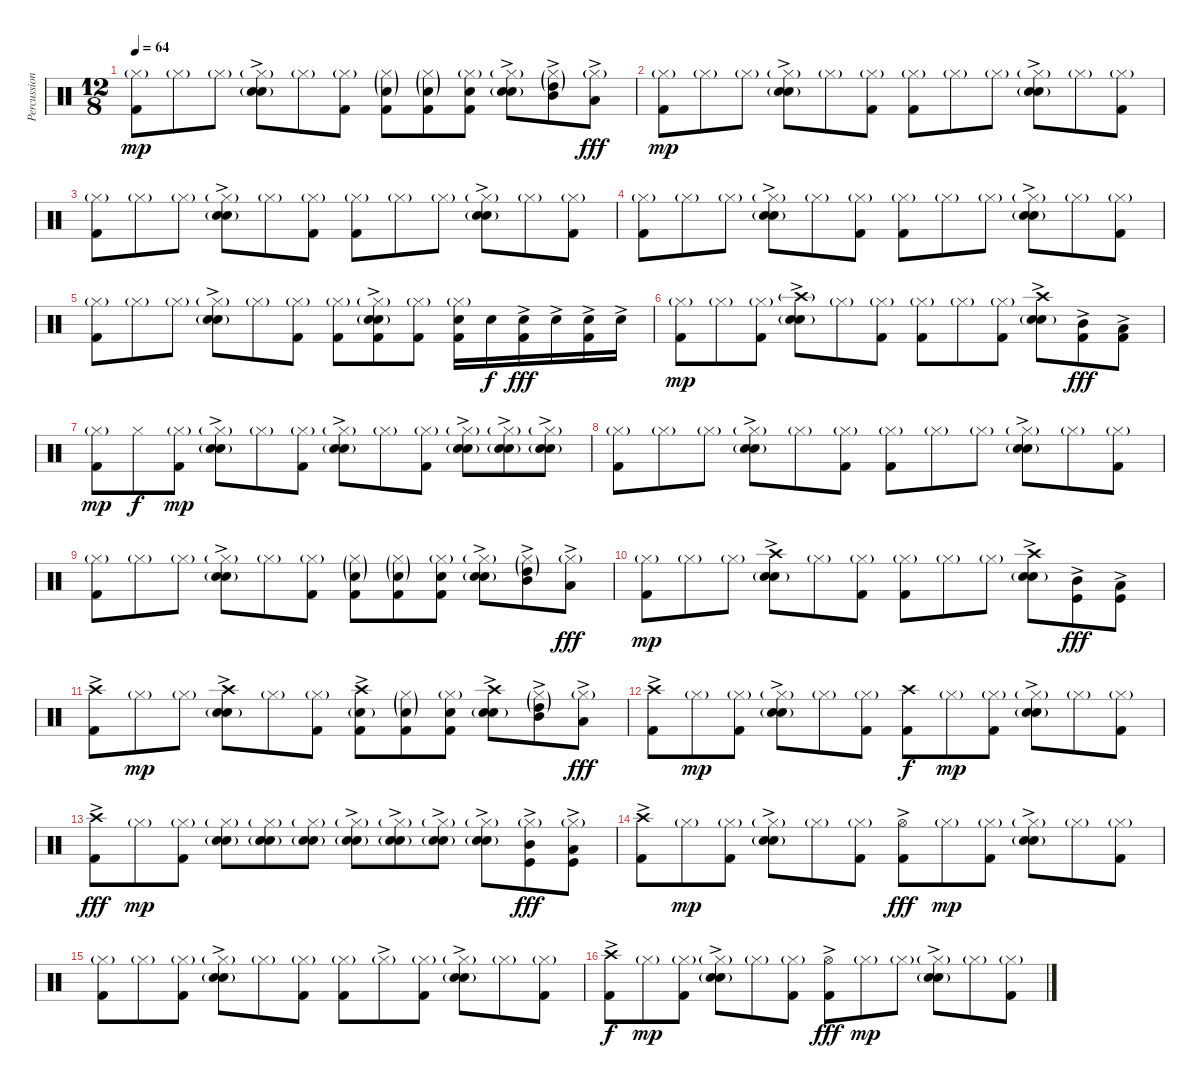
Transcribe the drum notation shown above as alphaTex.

\track ("Percussion" "Percussion") {instrument percussion}
\staff {score}
\articulation defaults
\ts (12 8)
\tempo 64
\clef neutral
\ks c
("Hi-Hat (closed)"{g} "Kick (hit) 2").8{dy mp} "Hi-Hat (closed)"{g}.8 "Hi-Hat (closed)"{g}.8 ("Hi-Hat (closed)"{g ac} "Electric Snare (hit)"{ac} "Snare (hit) 2"{g}).8 "Hi-Hat (closed)"{g}.8 ("Hi-Hat (closed)"{g} "Kick (hit) 2").8 ("Hi-Hat (closed)"{g} "Electric Snare (hit)"{g} "Kick (hit) 2").8 ("Hi-Hat (closed)"{g} "Electric Snare (hit)"{g} "Kick (hit) 2").8 ("Hi-Hat (closed)"{g} "Electric Snare (hit)" "Kick (hit) 2").8 ("Hi-Hat (closed)"{g} "Electric Snare (hit)"{ac} "Snare (hit) 2"{g}).8 ("Hi-Hat (closed)"{g} "Mid Tom (hit)"{ac} "High Tom (hit)"{g}).8 ("Hi-Hat (closed)"{g} "Low Tom (hit)"{ac}).8{dy fff} |
("Hi-Hat (closed)"{g} "Kick (hit) 2").8{dy mp} "Hi-Hat (closed)"{g}.8 "Hi-Hat (closed)"{g}.8 ("Hi-Hat (closed)"{g} "Electric Snare (hit)"{ac} "Snare (hit) 2"{g}).8 "Hi-Hat (closed)"{g}.8 ("Hi-Hat (closed)"{g} "Kick (hit) 2").8 ("Hi-Hat (closed)"{g} "Kick (hit) 2").8 "Hi-Hat (closed)"{g}.8 "Hi-Hat (closed)"{g}.8 ("Hi-Hat (closed)"{g} "Electric Snare (hit)"{ac} "Snare (hit) 2"{g}).8 "Hi-Hat (closed)"{g}.8 ("Hi-Hat (closed)"{g} "Kick (hit) 2").8 |
("Hi-Hat (closed)"{g} "Kick (hit) 2").8 "Hi-Hat (closed)"{g}.8 "Hi-Hat (closed)"{g}.8 ("Hi-Hat (closed)"{g} "Electric Snare (hit)"{ac} "Snare (hit) 2"{g}).8 "Hi-Hat (closed)"{g}.8 ("Hi-Hat (closed)"{g} "Kick (hit) 2").8 ("Hi-Hat (closed)"{g} "Kick (hit) 2").8 "Hi-Hat (closed)"{g}.8 "Hi-Hat (closed)"{g}.8 ("Hi-Hat (closed)"{g} "Electric Snare (hit)"{ac} "Snare (hit) 2"{g}).8 "Hi-Hat (closed)"{g}.8 ("Hi-Hat (closed)"{g} "Kick (hit) 2").8 |
("Hi-Hat (closed)"{g} "Kick (hit) 2").8 "Hi-Hat (closed)"{g}.8 "Hi-Hat (closed)"{g}.8 ("Hi-Hat (closed)"{g} "Electric Snare (hit)"{ac} "Snare (hit) 2"{g}).8 "Hi-Hat (closed)"{g}.8 ("Hi-Hat (closed)"{g} "Kick (hit) 2").8 ("Hi-Hat (closed)"{g} "Kick (hit) 2").8 "Hi-Hat (closed)"{g}.8 "Hi-Hat (closed)"{g}.8 ("Hi-Hat (closed)"{g} "Electric Snare (hit)"{ac} "Snare (hit) 2"{g}).8 "Hi-Hat (closed)"{g}.8 ("Hi-Hat (closed)"{g} "Kick (hit) 2").8 |
("Hi-Hat (closed)"{g} "Kick (hit) 2").8 "Hi-Hat (closed)"{g}.8 "Hi-Hat (closed)"{g}.8 ("Hi-Hat (closed)"{g ac} "Electric Snare (hit)"{ac} "Snare (hit) 2"{g}).8 "Hi-Hat (closed)"{g}.8 ("Hi-Hat (closed)"{g} "Kick (hit) 2").8 ("Hi-Hat (closed)"{g} "Kick (hit) 2").8 ("Hi-Hat (closed)"{g} "Electric Snare (hit)"{ac} "Snare (hit) 2"{g} "Kick (hit) 2").8 ("Hi-Hat (closed)"{g} "Kick (hit) 2").8 ("Hi-Hat (closed)"{g} "Electric Snare (hit)" "Kick (hit) 2").16 "Electric Snare (hit)".16{dy f} ("Electric Snare (hit)"{ac} "Kick (hit) 2").16{dy fff} "Electric Snare (hit)"{ac}.16 ("Electric Snare (hit)"{ac} "Kick (hit) 2").16 "Electric Snare (hit)"{ac}.16 |
("Hi-Hat (closed)"{g} "Kick (hit) 2").8{dy mp} "Hi-Hat (closed)"{g}.8 ("Hi-Hat (closed)"{g} "Kick (hit) 2").8 ("Crash high (hit)"{g ac} "Electric Snare (hit)"{ac} "Snare (hit) 2"{g}).8 "Hi-Hat (closed)"{g}.8 ("Hi-Hat (closed)"{g} "Kick (hit) 2").8 ("Hi-Hat (closed)"{g} "Kick (hit) 2").8 "Hi-Hat (closed)"{g}.8 ("Hi-Hat (closed)"{g} "Kick (hit) 2").8 ("Crash high (hit)"{ac} "Electric Snare (hit)"{ac} "Snare (hit) 2"{g}).8 ("Mid Tom (hit)"{ac} "Kick (hit) 2").8{dy fff} ("Low Tom (hit)"{ac} "Kick (hit) 2").8 |
("Hi-Hat (closed)"{g} "Kick (hit) 2").8{dy mp} "Hi-Hat (closed)".8{dy f} ("Hi-Hat (closed)"{g} "Kick (hit) 2").8{dy mp} ("Hi-Hat (closed)"{g} "Electric Snare (hit)"{ac} "Snare (hit) 2"{g}).8 "Hi-Hat (closed)"{g}.8 ("Hi-Hat (closed)"{g} "Kick (hit) 2").8 ("Hi-Hat (closed)"{g} "Electric Snare (hit)"{ac} "Snare (hit) 2"{g}).8 "Hi-Hat (closed)"{g}.8 ("Hi-Hat (closed)"{g} "Kick (hit) 2").8 ("Hi-Hat (closed)"{g} "Electric Snare (hit)"{ac} "Snare (hit) 2"{g}).8 ("Hi-Hat (closed)"{g} "Electric Snare (hit)"{ac} "Snare (hit) 2"{g}).8 ("Hi-Hat (closed)"{g} "Electric Snare (hit)"{ac} "Snare (hit) 2"{g}).8 |
("Hi-Hat (closed)"{g} "Kick (hit) 2").8 "Hi-Hat (closed)"{g}.8 "Hi-Hat (closed)"{g}.8 ("Hi-Hat (closed)"{g} "Electric Snare (hit)"{ac} "Snare (hit) 2"{g}).8 "Hi-Hat (closed)"{g}.8 ("Hi-Hat (closed)"{g} "Kick (hit) 2").8 ("Hi-Hat (closed)"{g} "Kick (hit) 2").8 "Hi-Hat (closed)"{g}.8 "Hi-Hat (closed)"{g}.8 ("Hi-Hat (closed)"{g} "Electric Snare (hit)"{ac} "Snare (hit) 2"{g}).8 "Hi-Hat (closed)"{g}.8 ("Hi-Hat (closed)"{g} "Kick (hit) 2").8 |
("Hi-Hat (closed)"{g} "Kick (hit) 2").8 "Hi-Hat (closed)"{g}.8 "Hi-Hat (closed)"{g}.8 ("Hi-Hat (closed)"{g} "Electric Snare (hit)"{ac} "Snare (hit) 2"{g}).8 "Hi-Hat (closed)"{g}.8 ("Hi-Hat (closed)"{g} "Kick (hit) 2").8 ("Hi-Hat (closed)"{g} "Electric Snare (hit)"{g} "Kick (hit) 2").8 ("Hi-Hat (closed)"{g} "Electric Snare (hit)"{g} "Kick (hit) 2").8 ("Hi-Hat (closed)"{g} "Electric Snare (hit)" "Kick (hit) 2").8 ("Hi-Hat (closed)"{g} "Electric Snare (hit)"{ac} "Snare (hit) 2"{g}).8 ("Hi-Hat (closed)"{g} "Mid Tom (hit)"{ac} "High Tom (hit)"{g}).8 ("Hi-Hat (closed)"{g} "Low Tom (hit)"{ac}).8{dy fff} |
("Hi-Hat (closed)"{g} "Kick (hit) 2").8{dy mp} "Hi-Hat (closed)"{g}.8 "Hi-Hat (closed)"{g}.8 ("Crash high (hit)"{ac} "Electric Snare (hit)"{ac} "Snare (hit) 2"{g}).8 "Hi-Hat (closed)"{g}.8 ("Hi-Hat (closed)"{g} "Kick (hit) 2").8 ("Hi-Hat (closed)"{g} "Kick (hit) 2").8 "Hi-Hat (closed)"{g}.8 "Hi-Hat (closed)"{g}.8 ("Crash high (hit)" "Electric Snare (hit)"{ac} "Snare (hit) 2"{g}).8 ("Mid Tom (hit)"{ac} "Kick (hit)").8{dy fff} ("Low Tom (hit)"{ac} "Kick (hit)").8 |
("Crash high (hit)"{ac} "Kick (hit) 2").8 "Hi-Hat (closed)"{g}.8{dy mp} "Hi-Hat (closed)"{g}.8 ("Crash high (hit)"{ac} "Electric Snare (hit)"{ac} "Snare (hit) 2"{g}).8 "Hi-Hat (closed)"{g}.8 ("Hi-Hat (closed)"{g} "Kick (hit) 2").8 ("Crash high (hit)"{ac} "Electric Snare (hit)"{g} "Kick (hit) 2").8 ("Hi-Hat (closed)"{g} "Electric Snare (hit)"{g} "Kick (hit) 2").8 ("Hi-Hat (closed)"{g} "Electric Snare (hit)" "Kick (hit) 2").8 ("Crash high (hit)"{ac} "Electric Snare (hit)"{ac} "Snare (hit) 2"{g}).8 ("Hi-Hat (closed)"{g} "Mid Tom (hit)"{ac} "High Tom (hit)"{g}).8 ("Hi-Hat (closed)"{g} "Low Tom (hit)"{ac}).8{dy fff} |
("Crash high (hit)"{ac} "Kick (hit) 2").8 "Hi-Hat (closed)"{g}.8{dy mp} ("Hi-Hat (closed)"{g} "Kick (hit) 2").8 ("Hi-Hat (closed)"{g} "Electric Snare (hit)"{ac} "Snare (hit) 2"{g}).8 "Hi-Hat (closed)"{g}.8 ("Hi-Hat (closed)"{g} "Kick (hit) 2").8 ("Crash high (hit)" "Kick (hit) 2").8{dy f} "Hi-Hat (closed)"{g}.8{dy mp} ("Hi-Hat (closed)"{g} "Kick (hit) 2").8 ("Hi-Hat (closed)"{g} "Electric Snare (hit)"{ac} "Snare (hit) 2"{g}).8 "Hi-Hat (closed)"{g}.8 ("Hi-Hat (closed)"{g} "Kick (hit) 2").8 |
("Crash high (hit)"{ac} "Kick (hit) 2").8{dy fff} "Hi-Hat (closed)"{g}.8{dy mp} ("Hi-Hat (closed)"{g} "Kick (hit) 2").8 ("Hi-Hat (closed)"{g} "Electric Snare (hit)" "Snare (hit) 2"{g}).8 ("Hi-Hat (closed)"{g} "Electric Snare (hit)" "Snare (hit) 2"{g}).8 ("Hi-Hat (closed)"{g} "Electric Snare (hit)" "Snare (hit) 2"{g}).8 ("Hi-Hat (closed)"{g ac} "Electric Snare (hit)"{ac} "Snare (hit) 2"{g}).8 ("Hi-Hat (closed)"{g ac} "Electric Snare (hit)"{ac} "Snare (hit) 2"{g}).8 ("Hi-Hat (closed)"{g ac} "Electric Snare (hit)"{ac} "Snare (hit) 2"{g}).8 ("Hi-Hat (closed)"{g ac} "Electric Snare (hit)"{ac} "Snare (hit) 2"{g}).8 ("Hi-Hat (closed)"{g ac} "Mid Tom (hit)"{ac} "Kick (hit)").8{dy fff} ("Hi-Hat (closed)"{g ac} "Low Tom (hit)"{ac} "Kick (hit)").8 |
("Crash high (hit)"{ac} "Kick (hit) 2").8 "Hi-Hat (closed)"{g}.8{dy mp} ("Hi-Hat (closed)"{g} "Kick (hit) 2").8 ("Hi-Hat (closed)"{g} "Electric Snare (hit)"{ac} "Snare (hit) 2"{g}).8 "Hi-Hat (closed)"{g}.8 ("Hi-Hat (closed)"{g} "Kick (hit) 2").8 ("Hi-Hat (open)"{ac} "Kick (hit) 2").8{dy fff} "Hi-Hat (closed)"{g}.8{dy mp} ("Hi-Hat (closed)"{g} "Kick (hit) 2").8 ("Hi-Hat (closed)"{g} "Electric Snare (hit)"{ac} "Snare (hit) 2"{g}).8 "Hi-Hat (closed)"{g}.8 ("Hi-Hat (closed)"{g} "Kick (hit) 2").8 |
("Hi-Hat (closed)"{g} "Kick (hit) 2").8 "Hi-Hat (closed)"{g}.8 ("Hi-Hat (closed)"{g} "Kick (hit) 2").8 ("Hi-Hat (closed)"{g} "Electric Snare (hit)"{ac} "Snare (hit) 2"{g}).8 "Hi-Hat (closed)"{g}.8 ("Hi-Hat (closed)"{g} "Kick (hit) 2").8 ("Hi-Hat (closed)"{g} "Kick (hit) 2").8 "Hi-Hat (closed)"{g ac}.8 ("Hi-Hat (closed)"{g} "Kick (hit) 2").8 ("Hi-Hat (closed)"{g} "Electric Snare (hit)"{ac} "Snare (hit) 2"{g}).8 "Hi-Hat (closed)"{g}.8 ("Hi-Hat (closed)"{g} "Kick (hit) 2").8 |
("Crash high (hit)"{ac} "Kick (hit) 2").8{dy f} "Hi-Hat (closed)"{g}.8{dy mp} ("Hi-Hat (closed)"{g} "Kick (hit) 2").8 ("Hi-Hat (closed)"{g} "Electric Snare (hit)"{ac} "Snare (hit) 2"{g}).8 "Hi-Hat (closed)"{g}.8 ("Hi-Hat (closed)"{g} "Kick (hit) 2").8 ("Hi-Hat (open)"{ac} "Kick (hit) 2").8{dy fff} "Hi-Hat (closed)"{g}.8{dy mp} "Hi-Hat (closed)"{g}.8 ("Hi-Hat (closed)"{g} "Electric Snare (hit)"{ac} "Snare (hit) 2"{g}).8 "Hi-Hat (closed)"{g}.8 ("Hi-Hat (closed)"{g} "Kick (hit) 2").8
